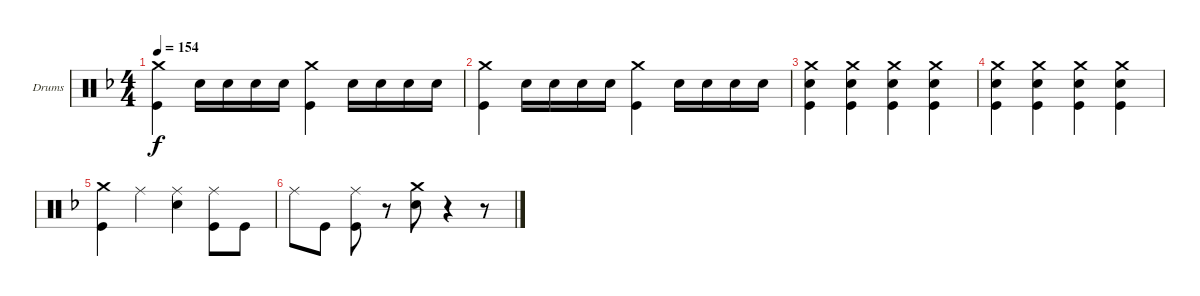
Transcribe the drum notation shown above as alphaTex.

\defaultSystemsLayout 4
\bracketExtendMode groupsimilarinstruments
\firstSystemTrackNameOrientation horizontal
\otherSystemsTrackNameOrientation horizontal
\track ("Drumkit" "Drums") {instrument percussion}
\staff {score}
\articulation defaults
\ts (4 4)
\tempo 154
\clef neutral
\ks f
("Crash medium (hit)" "Kick (hit)").4{dy f} "Snare (hit) 2".16 "Snare (hit) 2".16 "Snare (hit) 2".16 "Snare (hit) 2".16 ("Crash medium (hit)" "Kick (hit)").4 "Snare (hit) 2".16 "Snare (hit) 2".16 "Snare (hit) 2".16 "Snare (hit) 2".16 |
("Crash medium (hit)" "Kick (hit)").4 "Snare (hit) 2".16 "Snare (hit) 2".16 "Snare (hit) 2".16 "Snare (hit) 2".16 ("Crash medium (hit)" "Kick (hit)").4 "Snare (hit) 2".16 "Snare (hit) 2".16 "Snare (hit) 2".16 "Snare (hit) 2".16 |
("Crash medium (hit)" "Snare (hit) 2" "Kick (hit)").4 ("Crash medium (hit)" "Snare (hit) 2" "Kick (hit)").4 ("Crash medium (hit)" "Snare (hit) 2" "Kick (hit)").4 ("Crash medium (hit)" "Snare (hit) 2" "Kick (hit)").4 |
("Crash medium (hit)" "Snare (hit) 2" "Kick (hit)").4 ("Crash medium (hit)" "Snare (hit) 2" "Kick (hit)").4 ("Crash medium (hit)" "Snare (hit) 2" "Kick (hit)").4 ("Crash medium (hit)" "Snare (hit) 2" "Kick (hit)").4 |
("Crash medium (hit)" "Kick (hit)").4 "Ride (middle)".4 ("Ride (middle)" "Snare (hit) 2").4 ("Ride (middle)" "Kick (hit)").8 "Kick (hit)".8 |
"Ride (middle)".8 "Kick (hit)".8 ("Kick (hit)" "Ride (middle)").8 r.8 ("Crash medium (hit)" "Snare (hit) 2").8 r.4 r.8
